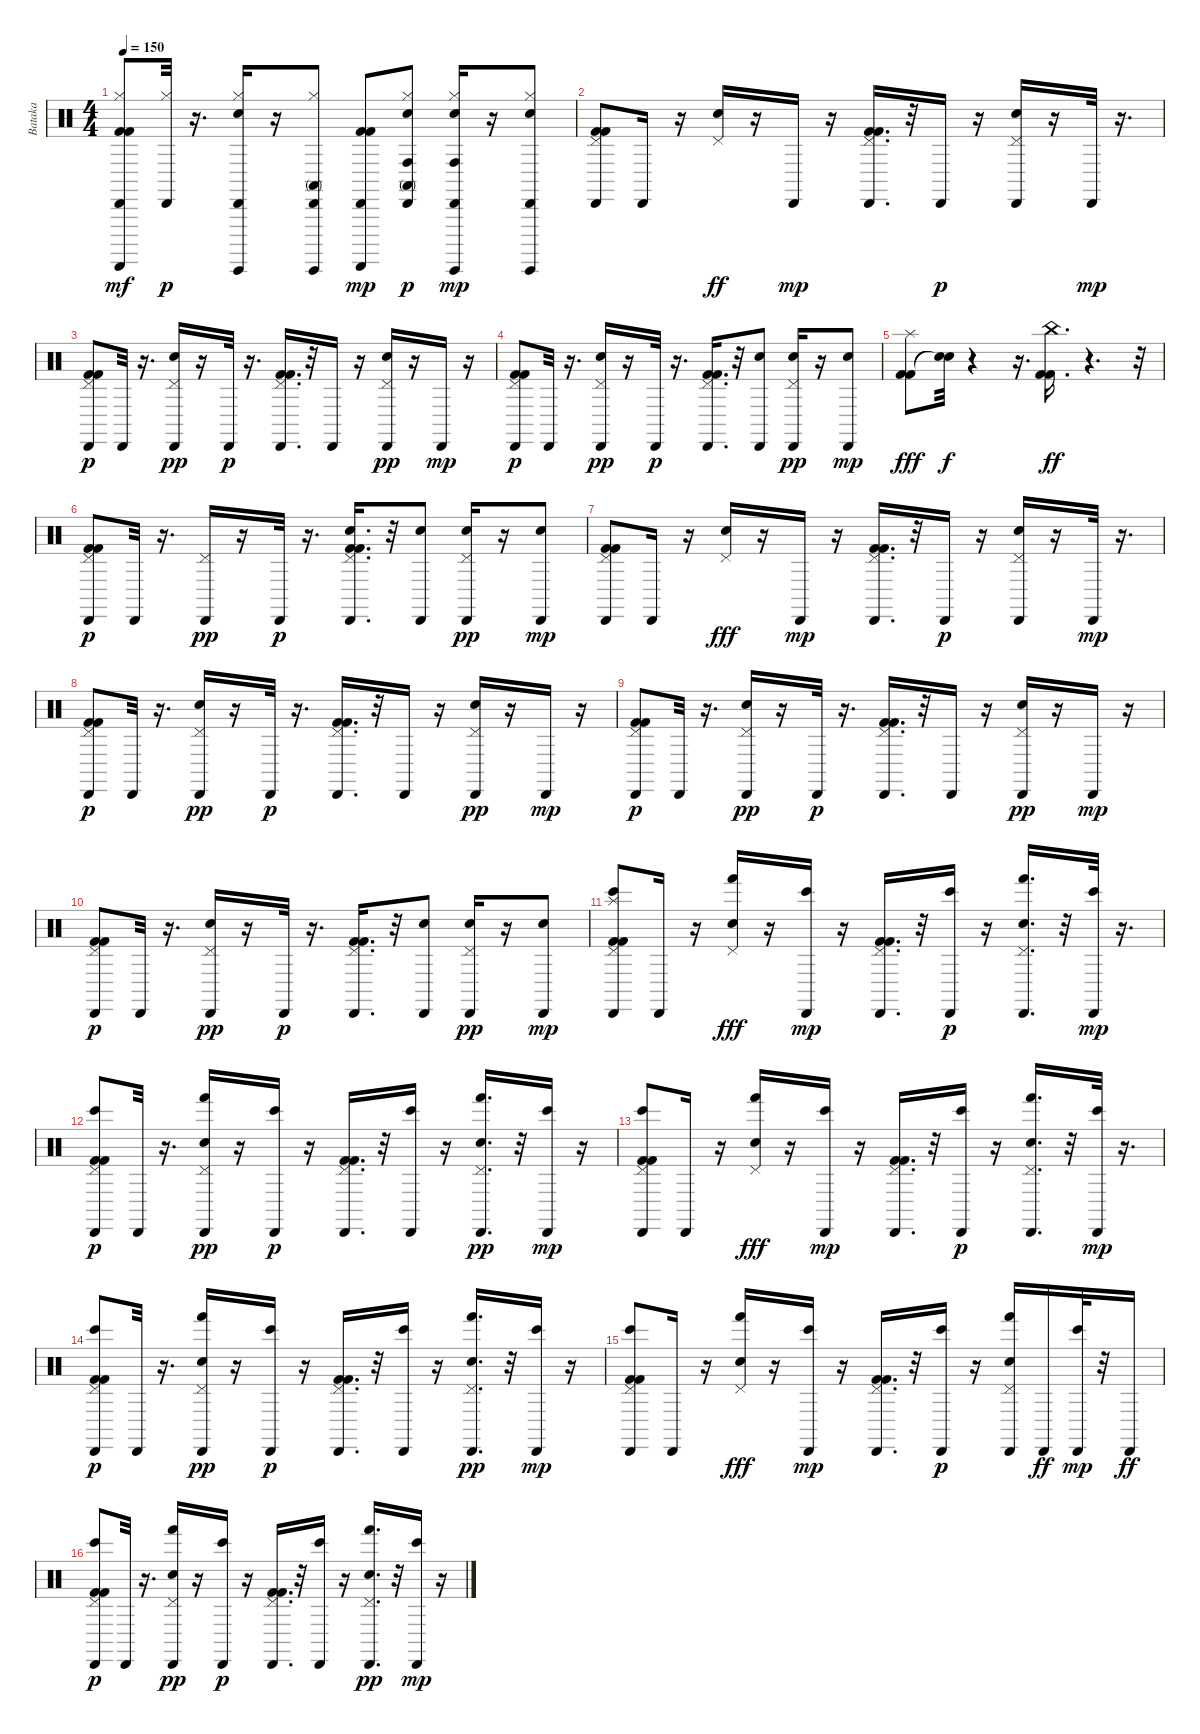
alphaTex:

\track ("Bataka" "Bataka") {instrument percussion}
\staff {score}
\articulation defaults
\ts (4 4)
\tempo 150
\clef neutral
\ks c
("Kick (hit) 2" "Kick (hit) 2" "Hi-Hat (closed)" "Cabasa (hit)" "Guiro (scrap-return)").8{dy mf} ("Hi-Hat (closed)" "Cabasa (hit)").32{dy p} r.16{d} ("Electric Snare (hit)" "Hi-Hat (closed)" "Cabasa (hit)" "Guiro (hit)").16 r.16 ("Hi-Hat (closed)" "Conga high (mute)" "Cabasa (hit)" "Guiro (hit)").8 ("Kick (hit) 2" "Kick (hit) 2" "Cabasa (hit)" "Guiro (scrap-return)").8{dy mp} ("Electric Snare (hit)" "Hi-Hat (closed)" "Conga high (hit)" "Conga high (mute)" "Cabasa (hit)").8{dy p} ("Electric Snare (hit)" "Hi-Hat (closed)" "Conga high (hit)" "Cabasa (hit)" "Guiro (hit)").16{dy mp} r.16 ("Electric Snare (hit)" "Hi-Hat (closed)" "Cabasa (hit)" "Guiro (hit)").8 |
("Kick (hit) 2" "Kick (hit) 2" "Pedal Hi-Hat (hit)" "Cabasa (hit)").8 "Cabasa (hit)".16 r.16 ("Electric Snare (hit)" "Pedal Hi-Hat (hit)").16{dy ff} r.16 "Cabasa (hit)".16{dy mp} r.16 ("Kick (hit) 2" "Kick (hit) 2" "Pedal Hi-Hat (hit)" "Cabasa (hit)").16{d} r.32 "Cabasa (hit)".16{dy p} r.16 ("Electric Snare (hit)" "Pedal Hi-Hat (hit)" "Cabasa (hit)").16 r.16 "Cabasa (hit)".32{dy mp} r.16{d} |
("Kick (hit) 2" "Kick (hit) 2" "Pedal Hi-Hat (hit)" "Cabasa (hit)").8{dy p} "Cabasa (hit)".32 r.16{d} ("Electric Snare (hit)" "Pedal Hi-Hat (hit)" "Cabasa (hit)").16{dy pp} r.16 "Cabasa (hit)".32{dy p} r.16{d} ("Kick (hit) 2" "Kick (hit) 2" "Pedal Hi-Hat (hit)" "Cabasa (hit)").16{d} r.32 "Cabasa (hit)".16 r.16 ("Electric Snare (hit)" "Pedal Hi-Hat (hit)" "Cabasa (hit)").16{dy pp} r.16 "Cabasa (hit)".16{dy mp} r.16 |
("Kick (hit) 2" "Kick (hit) 2" "Pedal Hi-Hat (hit)" "Cabasa (hit)").8{dy p} "Cabasa (hit)".32 r.16{d} ("Electric Snare (hit)" "Pedal Hi-Hat (hit)" "Cabasa (hit)").16{dy pp} r.16 "Cabasa (hit)".32{dy p} r.16{d} ("Kick (hit) 2" "Kick (hit) 2" "Pedal Hi-Hat (hit)" "Cabasa (hit)").16{d} r.32 ("Electric Snare (hit)" "Cabasa (hit)").8 ("Electric Snare (hit)" "Pedal Hi-Hat (hit)" "Cabasa (hit)").16{dy pp} r.16 ("Electric Snare (hit)" "Cabasa (hit)").8{dy mp} |
("Kick (hit) 2" "Kick (hit) 2" "Splash (hit)").8{dy fff} ("Snare (hit)"{t} "Snare (hit)"{t}).32{dy f} r.4 r.16{d} ("Kick (hit) 2" "Kick (hit) 2" "China (hit)").16{d dy ff} r.4{d} r.32 |
("Kick (hit) 2" "Kick (hit) 2" "Pedal Hi-Hat (hit)" "Cabasa (hit)").8{dy p} "Cabasa (hit)".32 r.16{d} ("Pedal Hi-Hat (hit)" "Cabasa (hit)").16{dy pp} r.16 "Cabasa (hit)".32{dy p} r.16{d} ("Kick (hit) 2" "Kick (hit) 2" "Electric Snare (hit)" "Pedal Hi-Hat (hit)" "Cabasa (hit)").16{d} r.32 ("Electric Snare (hit)" "Cabasa (hit)").8 ("Electric Snare (hit)" "Pedal Hi-Hat (hit)" "Cabasa (hit)").16{dy pp} r.16 ("Electric Snare (hit)" "Cabasa (hit)").8{dy mp} |
("Kick (hit) 2" "Kick (hit) 2" "Pedal Hi-Hat (hit)" "Cabasa (hit)").8 "Cabasa (hit)".16 r.16 ("Electric Snare (hit)" "Pedal Hi-Hat (hit)").16{dy fff} r.16 "Cabasa (hit)".16{dy mp} r.16 ("Kick (hit) 2" "Kick (hit) 2" "Pedal Hi-Hat (hit)" "Cabasa (hit)").16{d} r.32 "Cabasa (hit)".16{dy p} r.16 ("Electric Snare (hit)" "Pedal Hi-Hat (hit)" "Cabasa (hit)").16 r.16 "Cabasa (hit)".32{dy mp} r.16{d} |
("Kick (hit) 2" "Kick (hit) 2" "Pedal Hi-Hat (hit)" "Cabasa (hit)").8{dy p} "Cabasa (hit)".32 r.16{d} ("Electric Snare (hit)" "Pedal Hi-Hat (hit)" "Cabasa (hit)").16{dy pp} r.16 "Cabasa (hit)".32{dy p} r.16{d} ("Kick (hit) 2" "Kick (hit) 2" "Pedal Hi-Hat (hit)" "Cabasa (hit)").16{d} r.32 "Cabasa (hit)".16 r.16 ("Electric Snare (hit)" "Pedal Hi-Hat (hit)" "Cabasa (hit)").16{dy pp} r.16 "Cabasa (hit)".16{dy mp} r.16 |
("Kick (hit) 2" "Kick (hit) 2" "Pedal Hi-Hat (hit)" "Cabasa (hit)").8{dy p} "Cabasa (hit)".32 r.16{d} ("Electric Snare (hit)" "Pedal Hi-Hat (hit)" "Cabasa (hit)").16{dy pp} r.16 "Cabasa (hit)".32{dy p} r.16{d} ("Kick (hit) 2" "Kick (hit) 2" "Pedal Hi-Hat (hit)" "Cabasa (hit)").16{d} r.32 "Cabasa (hit)".16 r.16 ("Electric Snare (hit)" "Pedal Hi-Hat (hit)" "Cabasa (hit)").16{dy pp} r.16 "Cabasa (hit)".16{dy mp} r.16 |
("Kick (hit) 2" "Kick (hit) 2" "Pedal Hi-Hat (hit)" "Cabasa (hit)").8{dy p} "Cabasa (hit)".32 r.16{d} ("Electric Snare (hit)" "Pedal Hi-Hat (hit)" "Cabasa (hit)").16{dy pp} r.16 "Cabasa (hit)".32{dy p} r.16{d} ("Kick (hit) 2" "Kick (hit) 2" "Pedal Hi-Hat (hit)" "Cabasa (hit)").16{d} r.32 ("Electric Snare (hit)" "Cabasa (hit)").8 ("Electric Snare (hit)" "Pedal Hi-Hat (hit)" "Cabasa (hit)").16{dy pp} r.16 ("Electric Snare (hit)" "Cabasa (hit)").8{dy mp} |
("Kick (hit) 2" "Kick (hit) 2" "Pedal Hi-Hat (hit)" "Bongo High (hit)" "Cabasa (hit)" "Splash (hit)").8 "Cabasa (hit)".16 r.16 ("Electric Snare (hit)" "Pedal Hi-Hat (hit)" "Hand (hit)").16{dy fff} r.16 ("Bongo High (hit)" "Cabasa (hit)").16{dy mp} r.16 ("Kick (hit) 2" "Kick (hit) 2" "Pedal Hi-Hat (hit)" "Cabasa (hit)").16{d} r.32 ("Bongo High (hit)" "Cabasa (hit)").16{dy p} r.16 ("Electric Snare (hit)" "Pedal Hi-Hat (hit)" "Hand (hit)" "Cabasa (hit)").16{d} r.32 ("Bongo High (hit)" "Cabasa (hit)").32{dy mp} r.16{d} |
("Kick (hit) 2" "Kick (hit) 2" "Pedal Hi-Hat (hit)" "Bongo High (hit)" "Cabasa (hit)").8{dy p} "Cabasa (hit)".32 r.16{d} ("Electric Snare (hit)" "Pedal Hi-Hat (hit)" "Hand (hit)" "Cabasa (hit)").16{dy pp} r.16 ("Bongo High (hit)" "Cabasa (hit)").16{dy p} r.16 ("Kick (hit) 2" "Kick (hit) 2" "Pedal Hi-Hat (hit)" "Cabasa (hit)").16{d} r.32 ("Bongo High (hit)" "Cabasa (hit)").16 r.16 ("Electric Snare (hit)" "Pedal Hi-Hat (hit)" "Hand (hit)" "Cabasa (hit)").16{d dy pp} r.32 ("Bongo High (hit)" "Cabasa (hit)").16{dy mp} r.16 |
("Kick (hit) 2" "Kick (hit) 2" "Pedal Hi-Hat (hit)" "Bongo High (hit)" "Cabasa (hit)").8 "Cabasa (hit)".16 r.16 ("Electric Snare (hit)" "Pedal Hi-Hat (hit)" "Hand (hit)").16{dy fff} r.16 ("Bongo High (hit)" "Cabasa (hit)").16{dy mp} r.16 ("Kick (hit) 2" "Kick (hit) 2" "Pedal Hi-Hat (hit)" "Cabasa (hit)").16{d} r.32 ("Bongo High (hit)" "Cabasa (hit)").16{dy p} r.16 ("Electric Snare (hit)" "Pedal Hi-Hat (hit)" "Hand (hit)" "Cabasa (hit)").16{d} r.32 ("Bongo High (hit)" "Cabasa (hit)").32{dy mp} r.16{d} |
("Kick (hit) 2" "Kick (hit) 2" "Pedal Hi-Hat (hit)" "Bongo High (hit)" "Cabasa (hit)").8{dy p} "Cabasa (hit)".32 r.16{d} ("Electric Snare (hit)" "Pedal Hi-Hat (hit)" "Hand (hit)" "Cabasa (hit)").16{dy pp} r.16 ("Bongo High (hit)" "Cabasa (hit)").16{dy p} r.16 ("Kick (hit) 2" "Kick (hit) 2" "Pedal Hi-Hat (hit)" "Cabasa (hit)").16{d} r.32 ("Bongo High (hit)" "Cabasa (hit)").16 r.16 ("Electric Snare (hit)" "Pedal Hi-Hat (hit)" "Hand (hit)" "Cabasa (hit)").16{d dy pp} r.32 ("Bongo High (hit)" "Cabasa (hit)").16{dy mp} r.16 |
("Kick (hit) 2" "Kick (hit) 2" "Pedal Hi-Hat (hit)" "Bongo High (hit)" "Cabasa (hit)").8 "Cabasa (hit)".16 r.16 ("Electric Snare (hit)" "Pedal Hi-Hat (hit)" "Hand (hit)").16{dy fff} r.16 ("Bongo High (hit)" "Cabasa (hit)").16{dy mp} r.16 ("Kick (hit) 2" "Kick (hit) 2" "Pedal Hi-Hat (hit)" "Cabasa (hit)").16{d} r.32 ("Bongo High (hit)" "Cabasa (hit)").16{dy p} r.16 ("Electric Snare (hit)" "Pedal Hi-Hat (hit)" "Hand (hit)" "Cabasa (hit)").16 "Cabasa (hit)".16{dy ff} ("Bongo High (hit)" "Cabasa (hit)").32{dy mp} r.32 "Cabasa (hit)".16{dy ff} |
("Kick (hit) 2" "Kick (hit) 2" "Pedal Hi-Hat (hit)" "Bongo High (hit)" "Cabasa (hit)").8{dy p} "Cabasa (hit)".32 r.16{d} ("Electric Snare (hit)" "Pedal Hi-Hat (hit)" "Hand (hit)" "Cabasa (hit)").16{dy pp} r.16 ("Bongo High (hit)" "Cabasa (hit)").16{dy p} r.16 ("Kick (hit) 2" "Kick (hit) 2" "Pedal Hi-Hat (hit)" "Cabasa (hit)").16{d} r.32 ("Bongo High (hit)" "Cabasa (hit)").16 r.16 ("Electric Snare (hit)" "Pedal Hi-Hat (hit)" "Hand (hit)" "Cabasa (hit)").16{d dy pp} r.32 ("Bongo High (hit)" "Cabasa (hit)").16{dy mp} r.16
